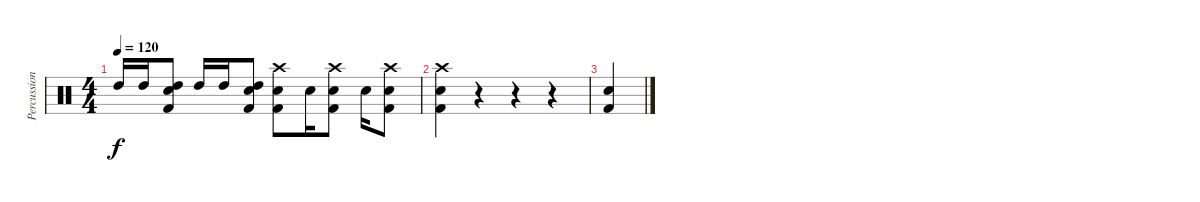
\track ("Percussion" "Percussion") {instrument percussion}
\staff {score}
\articulation defaults
\ts (4 4)
\tempo 120
\clef neutral
\ks c "High Tom (hit)".16{dy f} "High Tom (hit)".16
("Electric Snare (hit)" "High Tom (hit)" "Kick (hit) 2").8 "High Tom (hit)".16 "High Tom (hit)".16 ("Electric Snare (hit)" "High Tom (hit)" "Kick (hit) 2").8 ("Crash high (hit)" "Electric Snare (hit)" "Kick (hit) 2").8 "Electric Snare (hit)".16 ("Crash high (hit)" "Electric Snare (hit)" "Kick (hit) 2").8 "Electric Snare (hit)".16 ("Crash high (hit)" "Electric Snare (hit)" "Kick (hit) 2").8 |
("Crash high (hit)" "Electric Snare (hit)" "Kick (hit) 2").4 r.4 r.4 r.4 |
("Electric Snare (hit)" "Kick (hit) 2").4
